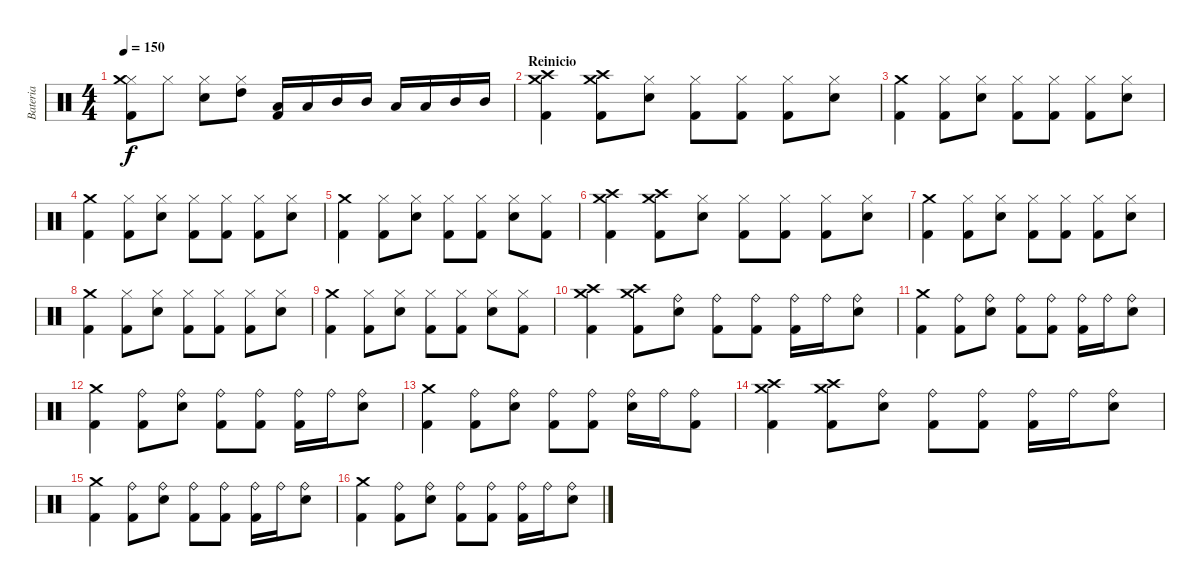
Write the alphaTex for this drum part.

\track ("Bateria" "Bateria") {instrument percussion}
\staff {score}
\articulation defaults
\ts (4 4)
\tempo 150
\clef neutral
\ks c
("Kick (hit) 2" "Hi-Hat (closed)" "Crash medium (hit)").8{dy f} "Hi-Hat (closed)".8 ("Electric Snare (hit)" "Hi-Hat (closed)").8 ("High Tom (hit)" "Hi-Hat (closed)").8 ("Kick (hit) 2" "Low Tom (hit)").16 "Low Tom (hit)".16 "Mid Tom (hit)".16 "Mid Tom (hit)".16 "Low Tom (hit)".16 "Low Tom (hit)".16 "Mid Tom (hit)".16 "Mid Tom (hit)".16 |
\section ("" "Reinicio")
("Kick (hit) 2" "Crash medium (hit)" "Crash high (hit)").4 ("Kick (hit) 2" "Crash medium (hit)" "Crash high (hit)").8 ("Electric Snare (hit)" "Hi-Hat (closed)").8 ("Kick (hit) 2" "Hi-Hat (closed)").8 ("Kick (hit) 2" "Hi-Hat (closed)").8 ("Kick (hit) 2" "Hi-Hat (closed)").8 ("Electric Snare (hit)" "Hi-Hat (closed)").8 |
("Kick (hit) 2" "Crash medium (hit)").4 ("Kick (hit) 2" "Hi-Hat (closed)").8 ("Electric Snare (hit)" "Hi-Hat (closed)").8 ("Kick (hit) 2" "Hi-Hat (closed)").8 ("Kick (hit) 2" "Hi-Hat (closed)").8 ("Kick (hit) 2" "Hi-Hat (closed)").8 ("Electric Snare (hit)" "Hi-Hat (closed)").8 |
("Kick (hit) 2" "Crash medium (hit)").4 ("Kick (hit) 2" "Hi-Hat (closed)").8 ("Electric Snare (hit)" "Hi-Hat (closed)").8 ("Kick (hit) 2" "Hi-Hat (closed)").8 ("Kick (hit) 2" "Hi-Hat (closed)").8 ("Kick (hit) 2" "Hi-Hat (closed)").8 ("Electric Snare (hit)" "Hi-Hat (closed)").8 |
("Kick (hit) 2" "Crash medium (hit)").4 ("Kick (hit) 2" "Hi-Hat (closed)").8 ("Electric Snare (hit)" "Hi-Hat (closed)").8 ("Kick (hit) 2" "Hi-Hat (closed)").8 ("Kick (hit) 2" "Hi-Hat (closed)").8 ("Electric Snare (hit)" "Hi-Hat (closed)").8 ("Kick (hit) 2" "Hi-Hat (closed)").8 |
("Kick (hit) 2" "Crash medium (hit)" "Crash high (hit)").4 ("Kick (hit) 2" "Crash medium (hit)" "Crash high (hit)").8 ("Electric Snare (hit)" "Hi-Hat (closed)").8 ("Kick (hit) 2" "Hi-Hat (closed)").8 ("Kick (hit) 2" "Hi-Hat (closed)").8 ("Kick (hit) 2" "Hi-Hat (closed)").8 ("Electric Snare (hit)" "Hi-Hat (closed)").8 |
("Kick (hit) 2" "Crash medium (hit)").4 ("Kick (hit) 2" "Hi-Hat (closed)").8 ("Electric Snare (hit)" "Hi-Hat (closed)").8 ("Kick (hit) 2" "Hi-Hat (closed)").8 ("Kick (hit) 2" "Hi-Hat (closed)").8 ("Kick (hit) 2" "Hi-Hat (closed)").8 ("Electric Snare (hit)" "Hi-Hat (closed)").8 |
("Kick (hit) 2" "Crash medium (hit)").4 ("Kick (hit) 2" "Hi-Hat (closed)").8 ("Electric Snare (hit)" "Hi-Hat (closed)").8 ("Kick (hit) 2" "Hi-Hat (closed)").8 ("Kick (hit) 2" "Hi-Hat (closed)").8 ("Kick (hit) 2" "Hi-Hat (closed)").8 ("Electric Snare (hit)" "Hi-Hat (closed)").8 |
("Kick (hit) 2" "Crash medium (hit)").4 ("Kick (hit) 2" "Hi-Hat (closed)").8 ("Electric Snare (hit)" "Hi-Hat (closed)").8 ("Kick (hit) 2" "Hi-Hat (closed)").8 ("Kick (hit) 2" "Hi-Hat (closed)").8 ("Electric Snare (hit)" "Hi-Hat (closed)").8 ("Kick (hit) 2" "Hi-Hat (closed)").8 |
("Kick (hit) 2" "Crash medium (hit)" "Crash high (hit)").4 ("Kick (hit) 2" "Crash medium (hit)" "Crash high (hit)").8 ("Electric Snare (hit)" "Ride (bell)").8 ("Kick (hit) 2" "Ride (bell)").8 ("Kick (hit) 2" "Ride (bell)").8 ("Kick (hit) 2" "Ride (bell)").16 "Ride (bell)".16 ("Electric Snare (hit)" "Ride (bell)").8 |
("Kick (hit) 2" "Crash medium (hit)").4 ("Kick (hit) 2" "Ride (bell)").8 ("Electric Snare (hit)" "Ride (bell)").8 ("Kick (hit) 2" "Ride (bell)").8 ("Kick (hit) 2" "Ride (bell)").8 ("Kick (hit) 2" "Ride (bell)").16 "Ride (bell)".16 ("Electric Snare (hit)" "Ride (bell)").8 |
("Kick (hit) 2" "Crash medium (hit)").4 ("Kick (hit) 2" "Ride (bell)").8 ("Electric Snare (hit)" "Ride (bell)").8 ("Kick (hit) 2" "Ride (bell)").8 ("Kick (hit) 2" "Ride (bell)").8 ("Kick (hit) 2" "Ride (bell)").16 "Ride (bell)".16 ("Electric Snare (hit)" "Ride (bell)").8 |
("Kick (hit) 2" "Crash medium (hit)").4 ("Kick (hit) 2" "Ride (bell)").8 ("Electric Snare (hit)" "Ride (bell)").8 ("Kick (hit) 2" "Ride (bell)").8 ("Kick (hit) 2" "Ride (bell)").8 ("Electric Snare (hit)" "Ride (bell)").16 "Ride (bell)".16 ("Kick (hit) 2" "Ride (bell)").8 |
("Kick (hit) 2" "Crash medium (hit)" "Crash high (hit)").4 ("Kick (hit) 2" "Crash medium (hit)" "Crash high (hit)").8 ("Electric Snare (hit)" "Ride (bell)").8 ("Kick (hit) 2" "Ride (bell)").8 ("Kick (hit) 2" "Ride (bell)").8 ("Kick (hit) 2" "Ride (bell)").16 "Ride (bell)".16 ("Electric Snare (hit)" "Ride (bell)").8 |
("Kick (hit) 2" "Crash medium (hit)").4 ("Kick (hit) 2" "Ride (bell)").8 ("Electric Snare (hit)" "Ride (bell)").8 ("Kick (hit) 2" "Ride (bell)").8 ("Kick (hit) 2" "Ride (bell)").8 ("Kick (hit) 2" "Ride (bell)").16 "Ride (bell)".16 ("Electric Snare (hit)" "Ride (bell)").8 |
("Kick (hit) 2" "Crash medium (hit)").4 ("Kick (hit) 2" "Ride (bell)").8 ("Electric Snare (hit)" "Ride (bell)").8 ("Kick (hit) 2" "Ride (bell)").8 ("Kick (hit) 2" "Ride (bell)").8 ("Kick (hit) 2" "Ride (bell)").16 "Ride (bell)".16 ("Electric Snare (hit)" "Ride (bell)").8
